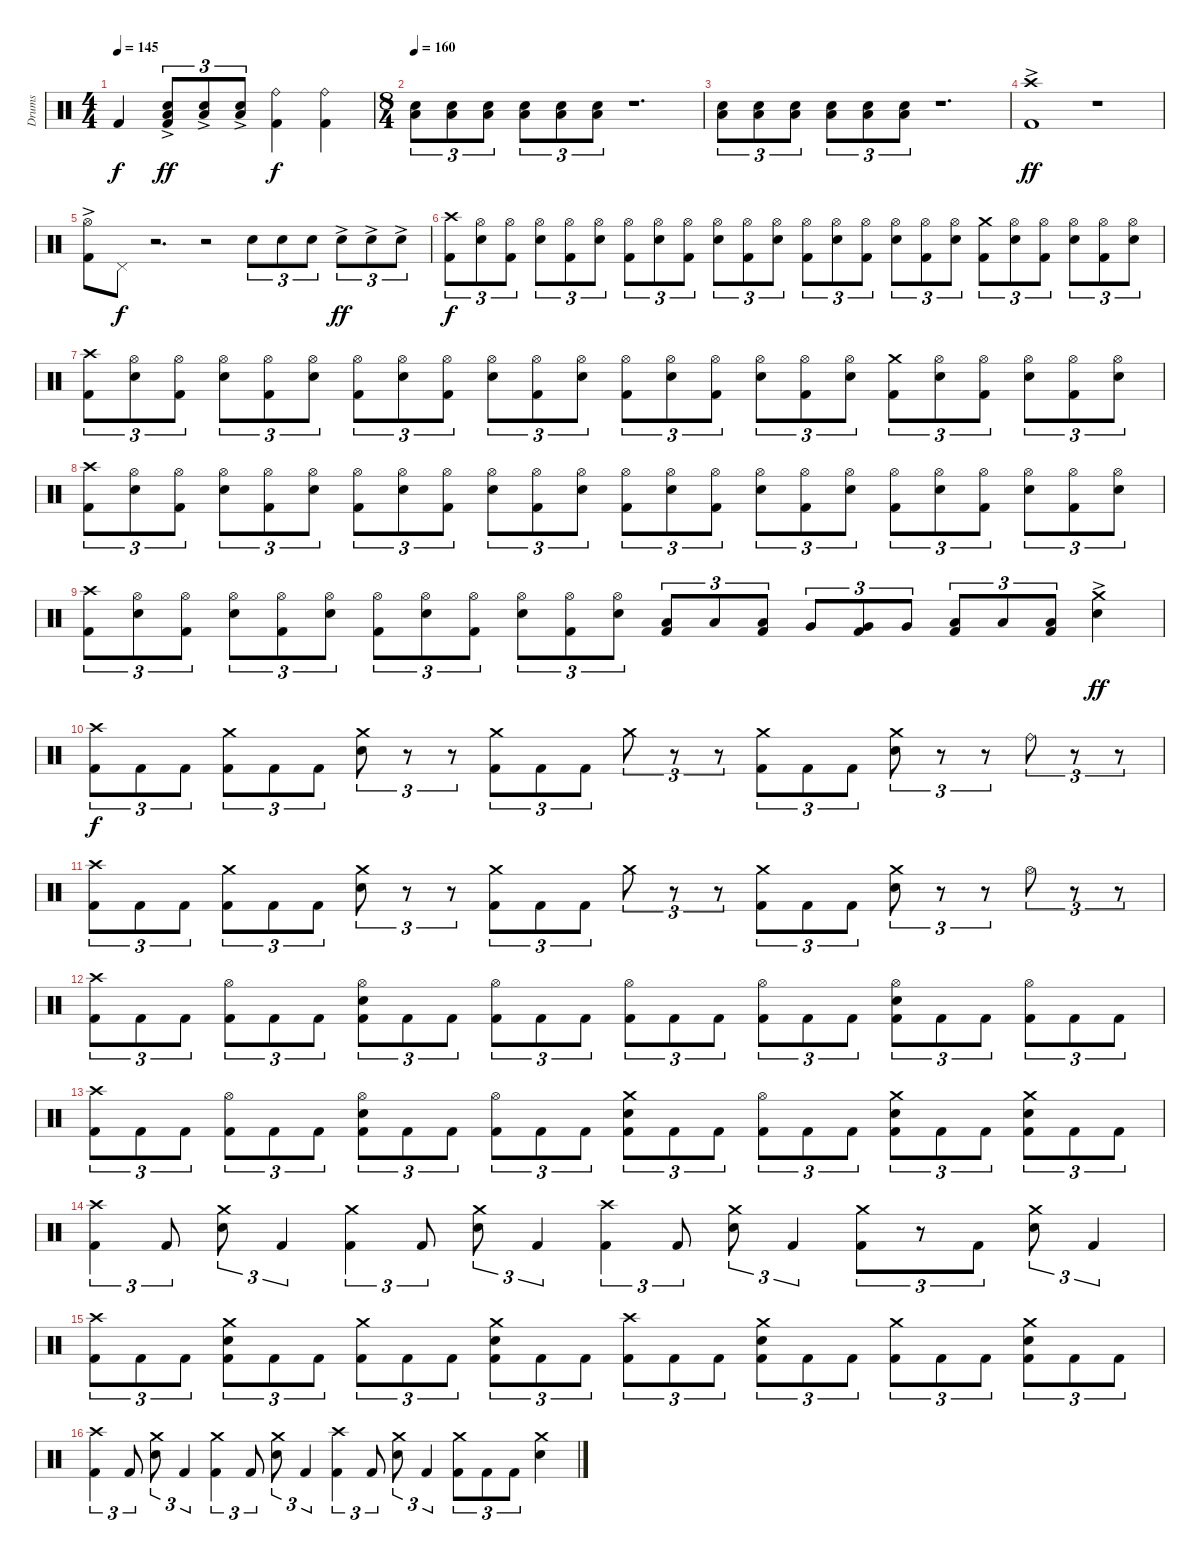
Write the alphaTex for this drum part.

\track ("Drums" "Drums") {instrument percussion}
\staff {score}
\articulation defaults
\ts (4 4)
\tempo 145
\clef neutral
\ks c "Kick (hit) 2".4{dy f}
("Electric Snare (hit)"{ac} "Low Floor Tom (hit)" "Kick (hit) 2").8{tu (3 2) dy ff} ("Electric Snare (hit)"{ac} "Low Floor Tom (hit)").8{tu (3 2)} ("Electric Snare (hit)"{ac} "Low Floor Tom (hit)").8{tu (3 2)} ("Kick (hit) 2" "Ride (bell)").4{dy f} ("Kick (hit) 2" "Ride (bell)").4 |
\ts (8 4)
\tempo 160
("Electric Snare (hit)" "Low Floor Tom (hit)").8{tu (3 2)} ("Electric Snare (hit)" "Low Floor Tom (hit)").8{tu (3 2)} ("Electric Snare (hit)" "Low Floor Tom (hit)").8{tu (3 2)} ("Electric Snare (hit)" "Low Floor Tom (hit)").8{tu (3 2)} ("Electric Snare (hit)" "Low Floor Tom (hit)").8{tu (3 2)} ("Electric Snare (hit)" "Low Floor Tom (hit)").8{tu (3 2)} r.1{d} |
("Electric Snare (hit)" "Low Floor Tom (hit)").8{tu (3 2)} ("Electric Snare (hit)" "Low Floor Tom (hit)").8{tu (3 2)} ("Electric Snare (hit)" "Low Floor Tom (hit)").8{tu (3 2)} ("Electric Snare (hit)" "Low Floor Tom (hit)").8{tu (3 2)} ("Electric Snare (hit)" "Low Floor Tom (hit)").8{tu (3 2)} ("Electric Snare (hit)" "Low Floor Tom (hit)").8{tu (3 2)} r.1{d} |
("Crash high (hit)"{ac} "Kick (hit) 2"{ac}).1{dy ff} r.1 |
("Hi-Hat (open)"{ac} "Kick (hit) 2"{ac}).8 "Pedal Hi-Hat (hit)".8{dy f} r.2{d} r.2 "Electric Snare (hit)".8{tu (3 2)} "Electric Snare (hit)".8{tu (3 2)} "Electric Snare (hit)".8{tu (3 2)} "Electric Snare (hit)"{ac}.8{tu (3 2) dy ff} "Electric Snare (hit)"{ac}.8{tu (3 2)} "Electric Snare (hit)"{ac}.8{tu (3 2)} |
("Crash high (hit)" "Kick (hit) 2").8{tu (3 2) dy f} ("Hi-Hat (open)" "Electric Snare (hit)").8{tu (3 2)} ("Hi-Hat (open)" "Kick (hit) 2").8{tu (3 2)} ("Hi-Hat (open)" "Electric Snare (hit)").8{tu (3 2)} ("Hi-Hat (open)" "Kick (hit) 2").8{tu (3 2)} ("Hi-Hat (open)" "Electric Snare (hit)").8{tu (3 2)} ("Hi-Hat (open)" "Kick (hit) 2").8{tu (3 2)} ("Hi-Hat (open)" "Electric Snare (hit)").8{tu (3 2)} ("Hi-Hat (open)" "Kick (hit) 2").8{tu (3 2)} ("Hi-Hat (open)" "Electric Snare (hit)").8{tu (3 2)} ("Hi-Hat (open)" "Kick (hit) 2").8{tu (3 2)} ("Hi-Hat (open)" "Electric Snare (hit)").8{tu (3 2)} ("Hi-Hat (open)" "Kick (hit) 2").8{tu (3 2)} ("Hi-Hat (open)" "Electric Snare (hit)").8{tu (3 2)} ("Hi-Hat (open)" "Kick (hit) 2").8{tu (3 2)} ("Hi-Hat (open)" "Electric Snare (hit)").8{tu (3 2)} ("Hi-Hat (open)" "Kick (hit) 2").8{tu (3 2)} ("Hi-Hat (open)" "Electric Snare (hit)").8{tu (3 2)} ("Crash medium (hit)" "Kick (hit) 2").8{tu (3 2)} ("Hi-Hat (open)" "Electric Snare (hit)").8{tu (3 2)} ("Hi-Hat (open)" "Kick (hit) 2").8{tu (3 2)} ("Hi-Hat (open)" "Electric Snare (hit)").8{tu (3 2)} ("Hi-Hat (open)" "Kick (hit) 2").8{tu (3 2)} ("Hi-Hat (open)" "Electric Snare (hit)").8{tu (3 2)} |
("Crash high (hit)" "Kick (hit) 2").8{tu (3 2)} ("Hi-Hat (open)" "Electric Snare (hit)").8{tu (3 2)} ("Hi-Hat (open)" "Kick (hit) 2").8{tu (3 2)} ("Hi-Hat (open)" "Electric Snare (hit)").8{tu (3 2)} ("Hi-Hat (open)" "Kick (hit) 2").8{tu (3 2)} ("Hi-Hat (open)" "Electric Snare (hit)").8{tu (3 2)} ("Hi-Hat (open)" "Kick (hit) 2").8{tu (3 2)} ("Hi-Hat (open)" "Electric Snare (hit)").8{tu (3 2)} ("Hi-Hat (open)" "Kick (hit) 2").8{tu (3 2)} ("Hi-Hat (open)" "Electric Snare (hit)").8{tu (3 2)} ("Hi-Hat (open)" "Kick (hit) 2").8{tu (3 2)} ("Hi-Hat (open)" "Electric Snare (hit)").8{tu (3 2)} ("Hi-Hat (open)" "Kick (hit) 2").8{tu (3 2)} ("Hi-Hat (open)" "Electric Snare (hit)").8{tu (3 2)} ("Hi-Hat (open)" "Kick (hit) 2").8{tu (3 2)} ("Hi-Hat (open)" "Electric Snare (hit)").8{tu (3 2)} ("Hi-Hat (open)" "Kick (hit) 2").8{tu (3 2)} ("Hi-Hat (open)" "Electric Snare (hit)").8{tu (3 2)} ("Crash medium (hit)" "Kick (hit) 2").8{tu (3 2)} ("Hi-Hat (open)" "Electric Snare (hit)").8{tu (3 2)} ("Hi-Hat (open)" "Kick (hit) 2").8{tu (3 2)} ("Hi-Hat (open)" "Electric Snare (hit)").8{tu (3 2)} ("Hi-Hat (open)" "Kick (hit) 2").8{tu (3 2)} ("Hi-Hat (open)" "Electric Snare (hit)").8{tu (3 2)} |
("Crash high (hit)" "Kick (hit) 2").8{tu (3 2)} ("Hi-Hat (open)" "Electric Snare (hit)").8{tu (3 2)} ("Hi-Hat (open)" "Kick (hit) 2").8{tu (3 2)} ("Hi-Hat (open)" "Electric Snare (hit)").8{tu (3 2)} ("Hi-Hat (open)" "Kick (hit) 2").8{tu (3 2)} ("Hi-Hat (open)" "Electric Snare (hit)").8{tu (3 2)} ("Hi-Hat (open)" "Kick (hit) 2").8{tu (3 2)} ("Hi-Hat (open)" "Electric Snare (hit)").8{tu (3 2)} ("Hi-Hat (open)" "Kick (hit) 2").8{tu (3 2)} ("Hi-Hat (open)" "Electric Snare (hit)").8{tu (3 2)} ("Hi-Hat (open)" "Kick (hit) 2").8{tu (3 2)} ("Hi-Hat (open)" "Electric Snare (hit)").8{tu (3 2)} ("Hi-Hat (open)" "Kick (hit) 2").8{tu (3 2)} ("Hi-Hat (open)" "Electric Snare (hit)").8{tu (3 2)} ("Hi-Hat (open)" "Kick (hit) 2").8{tu (3 2)} ("Hi-Hat (open)" "Electric Snare (hit)").8{tu (3 2)} ("Hi-Hat (open)" "Kick (hit) 2").8{tu (3 2)} ("Hi-Hat (open)" "Electric Snare (hit)").8{tu (3 2)} ("Hi-Hat (open)" "Kick (hit) 2").8{tu (3 2)} ("Hi-Hat (open)" "Electric Snare (hit)").8{tu (3 2)} ("Hi-Hat (open)" "Kick (hit) 2").8{tu (3 2)} ("Hi-Hat (open)" "Electric Snare (hit)").8{tu (3 2)} ("Hi-Hat (open)" "Kick (hit) 2").8{tu (3 2)} ("Hi-Hat (open)" "Electric Snare (hit)").8{tu (3 2)} |
("Crash high (hit)" "Kick (hit) 2").8{tu (3 2)} ("Hi-Hat (open)" "Electric Snare (hit)").8{tu (3 2)} ("Hi-Hat (open)" "Kick (hit) 2").8{tu (3 2)} ("Hi-Hat (open)" "Electric Snare (hit)").8{tu (3 2)} ("Hi-Hat (open)" "Kick (hit) 2").8{tu (3 2)} ("Hi-Hat (open)" "Electric Snare (hit)").8{tu (3 2)} ("Hi-Hat (open)" "Kick (hit) 2").8{tu (3 2)} ("Hi-Hat (open)" "Electric Snare (hit)").8{tu (3 2)} ("Hi-Hat (open)" "Kick (hit) 2").8{tu (3 2)} ("Hi-Hat (open)" "Electric Snare (hit)").8{tu (3 2)} ("Hi-Hat (open)" "Kick (hit) 2").8{tu (3 2)} ("Hi-Hat (open)" "Electric Snare (hit)").8{tu (3 2)} ("Low Tom (hit)" "Kick (hit) 2").8{tu (3 2)} "Low Tom (hit)".8{tu (3 2)} ("Low Tom (hit)" "Kick (hit) 2").8{tu (3 2)} "Very Low Tom (hit)".8{tu (3 2)} ("Very Low Tom (hit)" "Kick (hit) 2").8{tu (3 2)} "Very Low Tom (hit)".8{tu (3 2)} ("Low Floor Tom (hit)" "Kick (hit) 2").8{tu (3 2)} "Low Floor Tom (hit)".8{tu (3 2)} ("Low Floor Tom (hit)" "Kick (hit) 2").8{tu (3 2)} ("Crash medium (hit)"{ac} "Electric Snare (hit)"{ac}).4{dy ff} |
("Crash high (hit)" "Kick (hit) 2").8{tu (3 2) dy f} "Kick (hit) 2".8{tu (3 2)} "Kick (hit) 2".8{tu (3 2)} ("Crash medium (hit)" "Kick (hit) 2").8{tu (3 2)} "Kick (hit) 2".8{tu (3 2)} "Kick (hit) 2".8{tu (3 2)} ("Crash medium (hit)" "Electric Snare (hit)").8{tu (3 2)} r.8{tu (3 2)} r.8{tu (3 2)} ("Crash medium (hit)" "Kick (hit) 2").8{tu (3 2)} "Kick (hit) 2".8{tu (3 2)} "Kick (hit) 2".8{tu (3 2)} "Crash medium (hit)".8{tu (3 2)} r.8{tu (3 2)} r.8{tu (3 2)} ("Crash medium (hit)" "Kick (hit) 2").8{tu (3 2)} "Kick (hit) 2".8{tu (3 2)} "Kick (hit) 2".8{tu (3 2)} ("Crash medium (hit)" "Electric Snare (hit)").8{tu (3 2)} r.8{tu (3 2)} r.8{tu (3 2)} "Ride (bell)".8{tu (3 2)} r.8{tu (3 2)} r.8{tu (3 2)} |
("Crash high (hit)" "Kick (hit) 2").8{tu (3 2)} "Kick (hit) 2".8{tu (3 2)} "Kick (hit) 2".8{tu (3 2)} ("Crash medium (hit)" "Kick (hit) 2").8{tu (3 2)} "Kick (hit) 2".8{tu (3 2)} "Kick (hit) 2".8{tu (3 2)} ("Crash medium (hit)" "Electric Snare (hit)").8{tu (3 2)} r.8{tu (3 2)} r.8{tu (3 2)} ("Crash medium (hit)" "Kick (hit) 2").8{tu (3 2)} "Kick (hit) 2".8{tu (3 2)} "Kick (hit) 2".8{tu (3 2)} "Crash medium (hit)".8{tu (3 2)} r.8{tu (3 2)} r.8{tu (3 2)} ("Crash medium (hit)" "Kick (hit) 2").8{tu (3 2)} "Kick (hit) 2".8{tu (3 2)} "Kick (hit) 2".8{tu (3 2)} ("Crash medium (hit)" "Electric Snare (hit)").8{tu (3 2)} r.8{tu (3 2)} r.8{tu (3 2)} "Hi-Hat (open)".8{tu (3 2)} r.8{tu (3 2)} r.8{tu (3 2)} |
("Crash high (hit)" "Kick (hit) 2").8{tu (3 2)} "Kick (hit) 2".8{tu (3 2)} "Kick (hit) 2".8{tu (3 2)} ("Hi-Hat (open)" "Kick (hit) 2").8{tu (3 2)} "Kick (hit) 2".8{tu (3 2)} "Kick (hit) 2".8{tu (3 2)} ("Hi-Hat (open)" "Electric Snare (hit)" "Kick (hit) 2").8{tu (3 2)} "Kick (hit) 2".8{tu (3 2)} "Kick (hit) 2".8{tu (3 2)} ("Hi-Hat (open)" "Kick (hit) 2").8{tu (3 2)} "Kick (hit) 2".8{tu (3 2)} "Kick (hit) 2".8{tu (3 2)} ("Hi-Hat (open)" "Kick (hit) 2").8{tu (3 2)} "Kick (hit) 2".8{tu (3 2)} "Kick (hit) 2".8{tu (3 2)} ("Hi-Hat (open)" "Kick (hit) 2").8{tu (3 2)} "Kick (hit) 2".8{tu (3 2)} "Kick (hit) 2".8{tu (3 2)} ("Hi-Hat (open)" "Electric Snare (hit)" "Kick (hit) 2").8{tu (3 2)} "Kick (hit) 2".8{tu (3 2)} "Kick (hit) 2".8{tu (3 2)} ("Hi-Hat (open)" "Kick (hit) 2").8{tu (3 2)} "Kick (hit) 2".8{tu (3 2)} "Kick (hit) 2".8{tu (3 2)} |
("Crash high (hit)" "Kick (hit) 2").8{tu (3 2)} "Kick (hit) 2".8{tu (3 2)} "Kick (hit) 2".8{tu (3 2)} ("Hi-Hat (open)" "Kick (hit) 2").8{tu (3 2)} "Kick (hit) 2".8{tu (3 2)} "Kick (hit) 2".8{tu (3 2)} ("Hi-Hat (open)" "Electric Snare (hit)" "Kick (hit) 2").8{tu (3 2)} "Kick (hit) 2".8{tu (3 2)} "Kick (hit) 2".8{tu (3 2)} ("Hi-Hat (open)" "Kick (hit) 2").8{tu (3 2)} "Kick (hit) 2".8{tu (3 2)} "Kick (hit) 2".8{tu (3 2)} ("Crash medium (hit)" "Electric Snare (hit)" "Kick (hit) 2").8{tu (3 2)} "Kick (hit) 2".8{tu (3 2)} "Kick (hit) 2".8{tu (3 2)} ("Hi-Hat (open)" "Kick (hit) 2").8{tu (3 2)} "Kick (hit) 2".8{tu (3 2)} "Kick (hit) 2".8{tu (3 2)} ("Crash medium (hit)" "Electric Snare (hit)" "Kick (hit) 2").8{tu (3 2)} "Kick (hit) 2".8{tu (3 2)} "Kick (hit) 2".8{tu (3 2)} ("Crash medium (hit)" "Electric Snare (hit)" "Kick (hit) 2").8{tu (3 2)} "Kick (hit) 2".8{tu (3 2)} "Kick (hit) 2".8{tu (3 2)} |
("Crash high (hit)" "Kick (hit) 2").4{tu (3 2)} "Kick (hit) 2".8{tu (3 2)} ("Crash medium (hit)" "Electric Snare (hit)").8{tu (3 2)} "Kick (hit) 2".4{tu (3 2)} ("Crash medium (hit)" "Kick (hit) 2").4{tu (3 2)} "Kick (hit) 2".8{tu (3 2)} ("Crash medium (hit)" "Electric Snare (hit)").8{tu (3 2)} "Kick (hit) 2".4{tu (3 2)} ("Crash high (hit)" "Kick (hit) 2").4{tu (3 2)} "Kick (hit) 2".8{tu (3 2)} ("Crash medium (hit)" "Electric Snare (hit)").8{tu (3 2)} "Kick (hit) 2".4{tu (3 2)} ("Crash medium (hit)" "Kick (hit) 2").8{tu (3 2)} r.8{tu (3 2)} "Kick (hit) 2".8{tu (3 2)} ("Crash medium (hit)" "Electric Snare (hit)").8{tu (3 2)} "Kick (hit) 2".4{tu (3 2)} |
("Crash high (hit)" "Kick (hit) 2").8{tu (3 2)} "Kick (hit) 2".8{tu (3 2)} "Kick (hit) 2".8{tu (3 2)} ("Crash medium (hit)" "Electric Snare (hit)" "Kick (hit) 2").8{tu (3 2)} "Kick (hit) 2".8{tu (3 2)} "Kick (hit) 2".8{tu (3 2)} ("Crash medium (hit)" "Kick (hit) 2").8{tu (3 2)} "Kick (hit) 2".8{tu (3 2)} "Kick (hit) 2".8{tu (3 2)} ("Crash medium (hit)" "Electric Snare (hit)" "Kick (hit) 2").8{tu (3 2)} "Kick (hit) 2".8{tu (3 2)} "Kick (hit) 2".8{tu (3 2)} ("Crash high (hit)" "Kick (hit) 2").8{tu (3 2)} "Kick (hit) 2".8{tu (3 2)} "Kick (hit) 2".8{tu (3 2)} ("Crash medium (hit)" "Electric Snare (hit)" "Kick (hit) 2").8{tu (3 2)} "Kick (hit) 2".8{tu (3 2)} "Kick (hit) 2".8{tu (3 2)} ("Crash medium (hit)" "Kick (hit) 2").8{tu (3 2)} "Kick (hit) 2".8{tu (3 2)} "Kick (hit) 2".8{tu (3 2)} ("Crash medium (hit)" "Electric Snare (hit)" "Kick (hit) 2").8{tu (3 2)} "Kick (hit) 2".8{tu (3 2)} "Kick (hit) 2".8{tu (3 2)} |
("Crash high (hit)" "Kick (hit) 2").4{tu (3 2)} "Kick (hit) 2".8{tu (3 2)} ("Crash medium (hit)" "Electric Snare (hit)").8{tu (3 2)} "Kick (hit) 2".4{tu (3 2)} ("Crash medium (hit)" "Kick (hit) 2").4{tu (3 2)} "Kick (hit) 2".8{tu (3 2)} ("Crash medium (hit)" "Electric Snare (hit)").8{tu (3 2)} "Kick (hit) 2".4{tu (3 2)} ("Crash high (hit)" "Kick (hit) 2").4{tu (3 2)} "Kick (hit) 2".8{tu (3 2)} ("Crash medium (hit)" "Electric Snare (hit)").8{tu (3 2)} "Kick (hit) 2".4{tu (3 2)} ("Crash medium (hit)" "Kick (hit) 2").8{tu (3 2)} "Kick (hit) 2".8{tu (3 2)} "Kick (hit) 2".8{tu (3 2)} ("Crash medium (hit)" "Electric Snare (hit)").4
